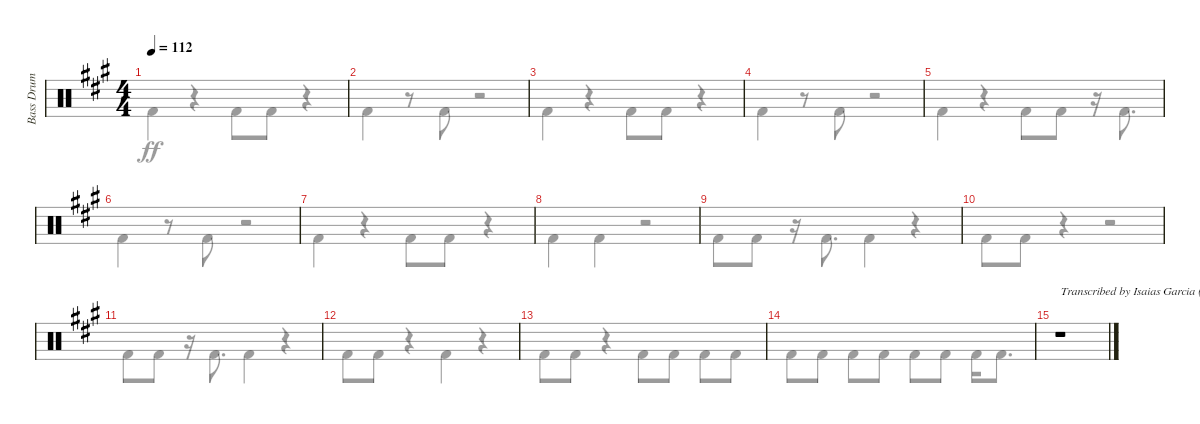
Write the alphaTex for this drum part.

\track ("Bass Drum" "Bass Drum") {instrument percussion}
\staff {score}
\articulation defaults
\voice
\ts (4 4)
\tempo 112
\clef neutral
\ks f#minor
|
|
|
|
|
|
|
|
|
|
|
|
|
|
r.1{txt "Transcribed by Isaias Garcia (TexasFury)"}
\voice
\clef neutral
\ottava regular
\simile none
\ks f#minor "Kick (hit) 2".4{dy ff}
r.4 "Kick (hit) 2".8 "Kick (hit) 2".8 r.4 |
"Kick (hit) 2".4 r.8 "Kick (hit) 2".8 r.2 |
"Kick (hit) 2".4 r.4 "Kick (hit) 2".8 "Kick (hit) 2".8 r.4 |
"Kick (hit) 2".4 r.8 "Kick (hit) 2".8 r.2 |
"Kick (hit) 2".4 r.4 "Kick (hit) 2".8 "Kick (hit) 2".8 r.16 "Kick (hit) 2".8{d} |
"Kick (hit) 2".4 r.8 "Kick (hit) 2".8 r.2 |
"Kick (hit) 2".4 r.4 "Kick (hit) 2".8 "Kick (hit) 2".8 r.4 |
"Kick (hit) 2".4 "Kick (hit) 2".4 r.2 |
"Kick (hit) 2".8 "Kick (hit) 2".8 r.16 "Kick (hit) 2".8{d} "Kick (hit) 2".4 r.4 |
"Kick (hit) 2".8 "Kick (hit) 2".8 r.4 r.2 |
"Kick (hit) 2".8 "Kick (hit) 2".8 r.16 "Kick (hit) 2".8{d} "Kick (hit) 2".4 r.4 |
"Kick (hit) 2".8 "Kick (hit) 2".8 r.4 "Kick (hit) 2".4 r.4 |
"Kick (hit) 2".8 "Kick (hit) 2".8 r.4 "Kick (hit) 2".8 "Kick (hit) 2".8 "Kick (hit) 2".8 "Kick (hit) 2".8 |
"Kick (hit) 2".8 "Kick (hit) 2".8 "Kick (hit) 2".8 "Kick (hit) 2".8 "Kick (hit) 2".8 "Kick (hit) 2".8 "Kick (hit) 2".16 "Kick (hit) 2".8{d} |
